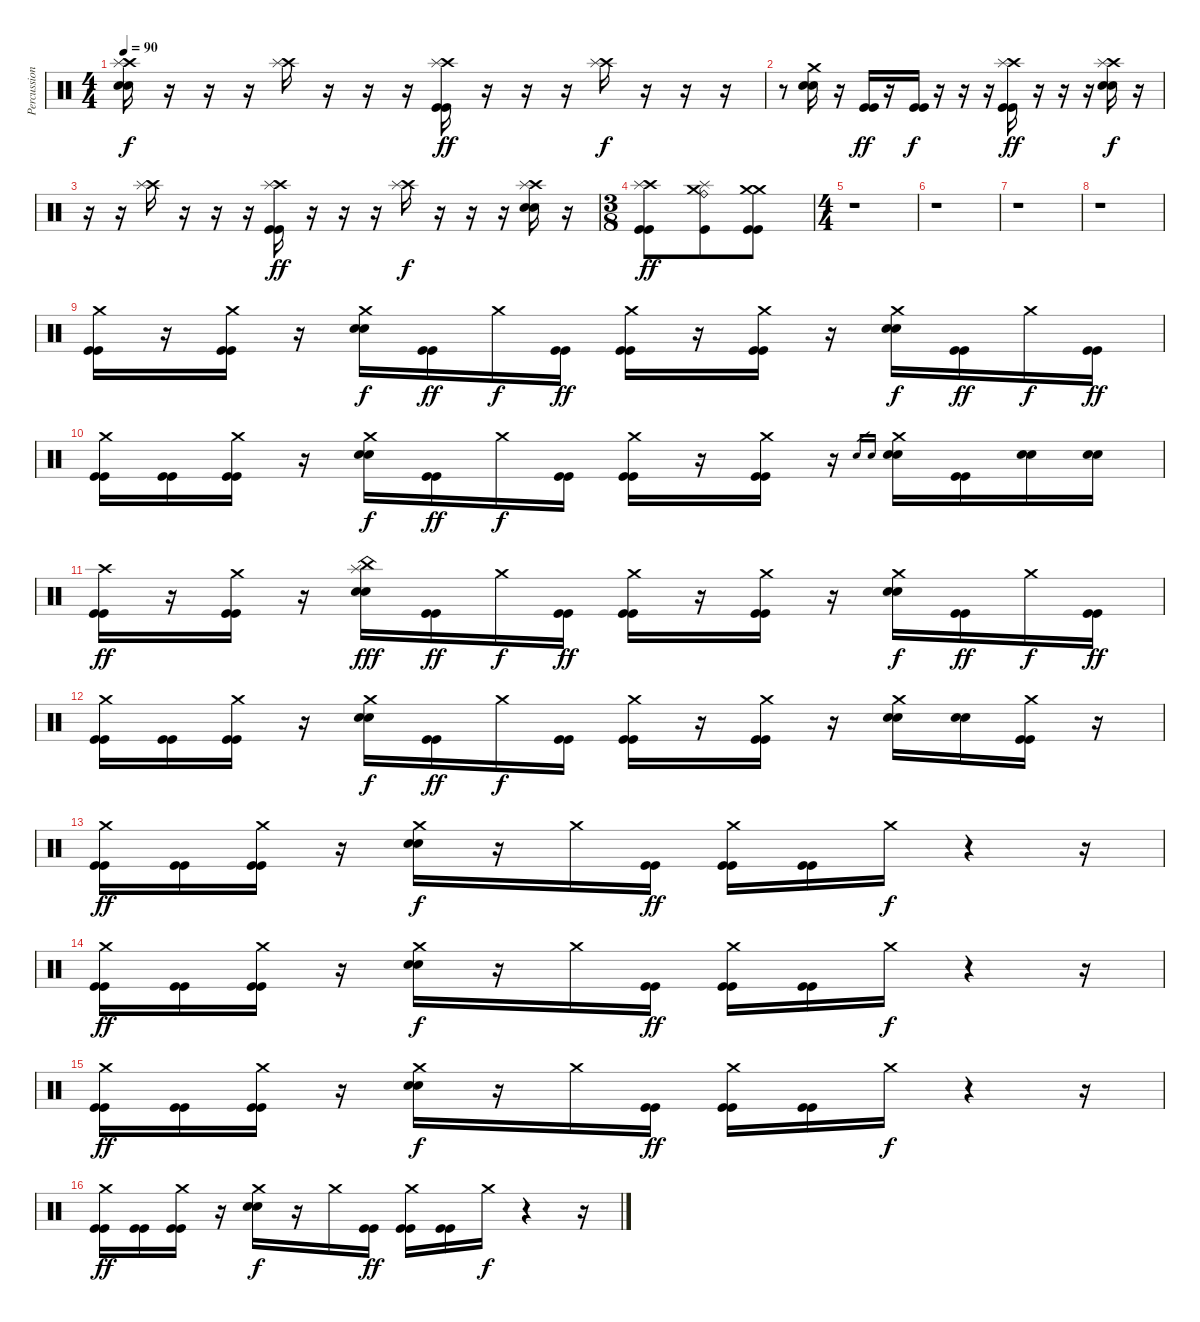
\track ("Percussions" "Percussion") {instrument percussion}
\staff {score}
\articulation defaults
\ts (4 4)
\tempo 90
\clef neutral
\ks c
("Crash high (hit)" "Splash (hit)" "Electric Snare (hit)" "Electric Snare (hit)").16{dy f} r.16 r.16 r.16 ("Crash high (hit)" "Splash (hit)").16 r.16 r.16 r.16 ("Crash high (hit)" "Splash (hit)" "Kick (hit)" "Kick (hit)").16{dy ff} r.16 r.16 r.16 ("Crash high (hit)" "Splash (hit)").16{dy f} r.16 r.16 r.16 |
r.8 ("Crash medium (hit)" "Electric Snare (hit)" "Electric Snare (hit)").16 r.16 ("Kick (hit)" "Kick (hit)").16{dy ff} r.16 ("Kick (hit)" "Kick (hit)").16{dy f} r.16 r.16 r.16 ("Crash high (hit)" "Splash (hit)" "Kick (hit)" "Kick (hit)").16{dy ff} r.16 r.16 r.16 ("Crash high (hit)" "Splash (hit)" "Electric Snare (hit)" "Electric Snare (hit)").16{dy f} r.16 |
r.16 r.16 ("Crash high (hit)" "Splash (hit)").16 r.16 r.16 r.16 ("Crash high (hit)" "Splash (hit)" "Kick (hit)" "Kick (hit)").16{dy ff} r.16 r.16 r.16 ("Crash high (hit)" "Splash (hit)").16{dy f} r.16 r.16 r.16 ("Crash high (hit)" "Splash (hit)" "Electric Snare (hit)" "Electric Snare (hit)").16 r.16 |
\ts (3 8)
("Crash high (hit)" "Splash (hit)" "Kick (hit)" "Kick (hit)").8{dy ff} ("Crash medium (hit)" "Splash (hit)" "Kick (hit)" "Ride (bell)").8 ("Crash medium (hit)" "Crash medium (hit)" "Kick (hit)" "Kick (hit)").8 |
\ts (4 4)
r.1 |
r.1 |
r.1 |
r.1 |
("Crash medium (hit)" "Kick (hit)" "Kick (hit)").16 r.16 ("Crash medium (hit)" "Kick (hit)" "Kick (hit)").16 r.16 ("Crash medium (hit)" "Electric Snare (hit)" "Electric Snare (hit)").16{dy f} ("Kick (hit)" "Kick (hit)").16{dy ff} "Crash medium (hit)".16{dy f} ("Kick (hit)" "Kick (hit)").16{dy ff} ("Crash medium (hit)" "Kick (hit)" "Kick (hit)").16 r.16 ("Crash medium (hit)" "Kick (hit)" "Kick (hit)").16 r.16 ("Crash medium (hit)" "Electric Snare (hit)" "Electric Snare (hit)").16{dy f} ("Kick (hit)" "Kick (hit)").16{dy ff} "Crash medium (hit)".16{dy f} ("Kick (hit)" "Kick (hit)").16{dy ff} |
("Crash medium (hit)" "Kick (hit)" "Kick (hit)").16 ("Kick (hit)" "Kick (hit)").16 ("Crash medium (hit)" "Kick (hit)" "Kick (hit)").16 r.16 ("Crash medium (hit)" "Electric Snare (hit)" "Electric Snare (hit)").16{dy f} ("Kick (hit)" "Kick (hit)").16{dy ff} "Crash medium (hit)".16{dy f} ("Kick (hit)" "Kick (hit)").16 ("Crash medium (hit)" "Kick (hit)" "Kick (hit)").16 r.16 ("Crash medium (hit)" "Kick (hit)" "Kick (hit)").16 r.16 "Electric Snare (hit)".16{gr} "Electric Snare (hit)".16{gr} ("Crash medium (hit)" "Electric Snare (hit)" "Electric Snare (hit)").16 ("Kick (hit)" "Kick (hit)").16 ("Electric Snare (hit)" "Electric Snare (hit)").16 ("Electric Snare (hit)" "Electric Snare (hit)").16 |
("Crash high (hit)" "Kick (hit)" "Kick (hit)").16{dy ff} r.16 ("Crash medium (hit)" "Kick (hit)" "Kick (hit)").16 r.16 ("China (hit)" "Splash (hit)" "Electric Snare (hit)" "Electric Snare (hit)").16{dy fff} ("Kick (hit)" "Kick (hit)").16{dy ff} "Crash medium (hit)".16{dy f} ("Kick (hit)" "Kick (hit)").16{dy ff} ("Crash medium (hit)" "Kick (hit)" "Kick (hit)").16 r.16 ("Crash medium (hit)" "Kick (hit)" "Kick (hit)").16 r.16 ("Crash medium (hit)" "Electric Snare (hit)" "Electric Snare (hit)").16{dy f} ("Kick (hit)" "Kick (hit)").16{dy ff} "Crash medium (hit)".16{dy f} ("Kick (hit)" "Kick (hit)").16{dy ff} |
("Crash medium (hit)" "Kick (hit)" "Kick (hit)").16 ("Kick (hit)" "Kick (hit)").16 ("Crash medium (hit)" "Kick (hit)" "Kick (hit)").16 r.16 ("Crash medium (hit)" "Electric Snare (hit)" "Electric Snare (hit)").16{dy f} ("Kick (hit)" "Kick (hit)").16{dy ff} "Crash medium (hit)".16{dy f} ("Kick (hit)" "Kick (hit)").16 ("Crash medium (hit)" "Kick (hit)" "Kick (hit)").16 r.16 ("Crash medium (hit)" "Kick (hit)" "Kick (hit)").16 r.16 ("Crash medium (hit)" "Electric Snare (hit)" "Electric Snare (hit)").16 ("Electric Snare (hit)" "Electric Snare (hit)").16 ("Crash medium (hit)" "Kick (hit)" "Kick (hit)").16 r.16 |
("Crash medium (hit)" "Kick (hit)" "Kick (hit)").16{dy ff} ("Kick (hit)" "Kick (hit)").16 ("Crash medium (hit)" "Kick (hit)" "Kick (hit)").16 r.16 ("Crash medium (hit)" "Electric Snare (hit)" "Electric Snare (hit)").16{dy f} r.16 "Crash medium (hit)".16 ("Kick (hit)" "Kick (hit)").16{dy ff} ("Crash medium (hit)" "Kick (hit)" "Kick (hit)").16 ("Kick (hit)" "Kick (hit)").16 "Crash medium (hit)".16{dy f} r.4 r.16 |
("Crash medium (hit)" "Kick (hit)" "Kick (hit)").16{dy ff} ("Kick (hit)" "Kick (hit)").16 ("Crash medium (hit)" "Kick (hit)" "Kick (hit)").16 r.16 ("Crash medium (hit)" "Electric Snare (hit)" "Electric Snare (hit)").16{dy f} r.16 "Crash medium (hit)".16 ("Kick (hit)" "Kick (hit)").16{dy ff} ("Crash medium (hit)" "Kick (hit)" "Kick (hit)").16 ("Kick (hit)" "Kick (hit)").16 "Crash medium (hit)".16{dy f} r.4 r.16 |
("Crash medium (hit)" "Kick (hit)" "Kick (hit)").16{dy ff} ("Kick (hit)" "Kick (hit)").16 ("Crash medium (hit)" "Kick (hit)" "Kick (hit)").16 r.16 ("Crash medium (hit)" "Electric Snare (hit)" "Electric Snare (hit)").16{dy f} r.16 "Crash medium (hit)".16 ("Kick (hit)" "Kick (hit)").16{dy ff} ("Crash medium (hit)" "Kick (hit)" "Kick (hit)").16 ("Kick (hit)" "Kick (hit)").16 "Crash medium (hit)".16{dy f} r.4 r.16 |
("Crash medium (hit)" "Kick (hit)" "Kick (hit)").16{dy ff} ("Kick (hit)" "Kick (hit)").16 ("Crash medium (hit)" "Kick (hit)" "Kick (hit)").16 r.16 ("Crash medium (hit)" "Electric Snare (hit)" "Electric Snare (hit)").16{dy f} r.16 "Crash medium (hit)".16 ("Kick (hit)" "Kick (hit)").16{dy ff} ("Crash medium (hit)" "Kick (hit)" "Kick (hit)").16 ("Kick (hit)" "Kick (hit)").16 "Crash medium (hit)".16{dy f} r.4 r.16
